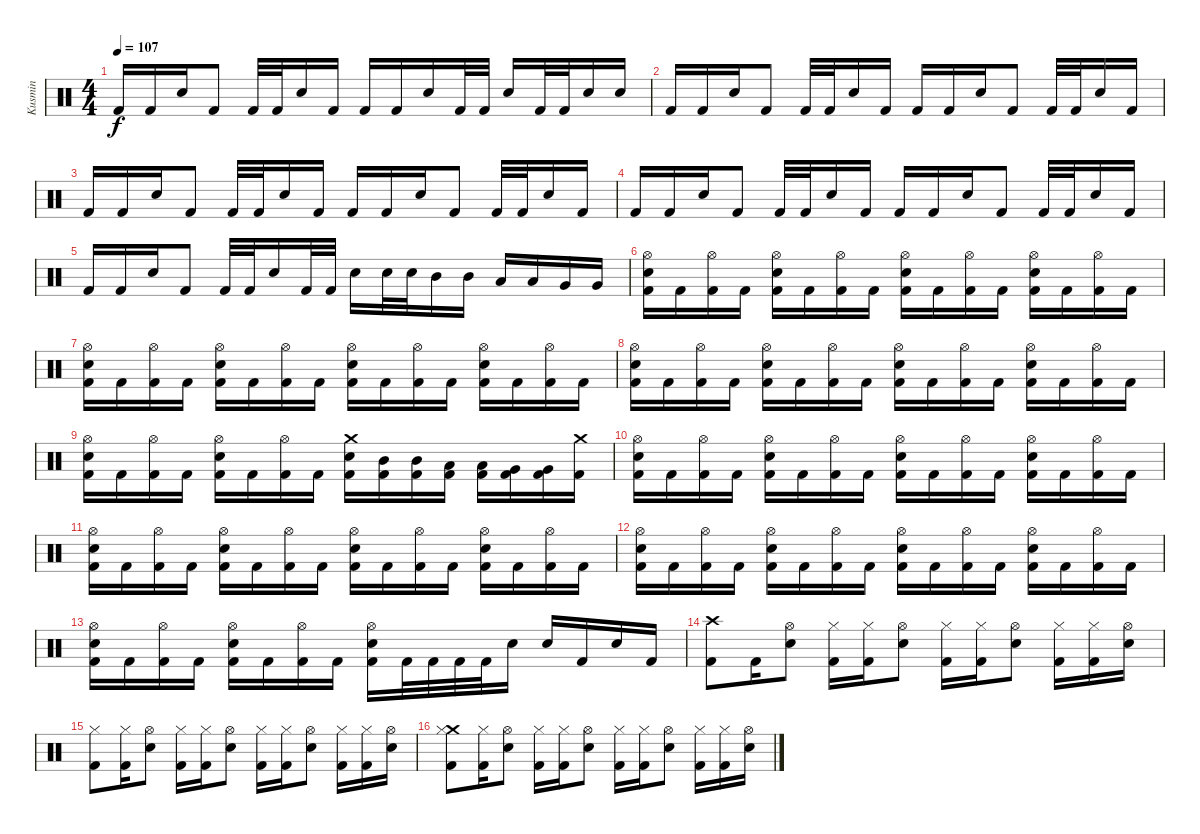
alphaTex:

\track ("Kusmin" "Kusmin") {instrument percussion}
\staff {score}
\articulation defaults
\ts (4 4)
\tempo 107
\clef neutral
\ks c "Kick (hit) 2".16{dy f} "Kick (hit) 2".16 "Snare (hit) 2".16 "Kick (hit) 2".8 "Kick (hit) 2".32 "Kick (hit) 2".32 "Snare (hit) 2".16 "Kick (hit) 2".16 "Kick (hit) 2".16 "Kick (hit) 2".16 "Snare (hit) 2".16 "Kick (hit) 2".32 "Kick (hit) 2".32 "Snare (hit) 2".16 "Kick (hit) 2".32 "Kick (hit) 2".32 "Snare (hit) 2".16 "Snare (hit) 2".16
|
"Kick (hit) 2".16 "Kick (hit) 2".16 "Snare (hit) 2".16 "Kick (hit) 2".8 "Kick (hit) 2".32 "Kick (hit) 2".32 "Snare (hit) 2".16 "Kick (hit) 2".16 "Kick (hit) 2".16 "Kick (hit) 2".16 "Snare (hit) 2".16 "Kick (hit) 2".8 "Kick (hit) 2".32 "Kick (hit) 2".32 "Snare (hit) 2".16 "Kick (hit) 2".16 |
"Kick (hit) 2".16 "Kick (hit) 2".16 "Snare (hit) 2".16 "Kick (hit) 2".8 "Kick (hit) 2".32 "Kick (hit) 2".32 "Snare (hit) 2".16 "Kick (hit) 2".16 "Kick (hit) 2".16 "Kick (hit) 2".16 "Snare (hit) 2".16 "Kick (hit) 2".8 "Kick (hit) 2".32 "Kick (hit) 2".32 "Snare (hit) 2".16 "Kick (hit) 2".16 |
"Kick (hit) 2".16 "Kick (hit) 2".16 "Snare (hit) 2".16 "Kick (hit) 2".8 "Kick (hit) 2".32 "Kick (hit) 2".32 "Snare (hit) 2".16 "Kick (hit) 2".16 "Kick (hit) 2".16 "Kick (hit) 2".16 "Snare (hit) 2".16 "Kick (hit) 2".8 "Kick (hit) 2".32 "Kick (hit) 2".32 "Snare (hit) 2".16 "Kick (hit) 2".16 |
"Kick (hit) 2".16 "Kick (hit) 2".16 "Snare (hit) 2".16 "Kick (hit) 2".8 "Kick (hit) 2".32 "Kick (hit) 2".32 "Snare (hit) 2".16 "Kick (hit) 2".32 "Kick (hit) 2".32 "Snare (hit) 2".16 "Snare (hit) 2".32 "Snare (hit) 2".32 "Mid Tom (hit)".16 "Mid Tom (hit)".16 "Low Tom (hit)".16 "Low Tom (hit)".16 "Very Low Tom (hit)".16 "Very Low Tom (hit)".16 |
("Hi-Hat (open)" "Snare (hit) 2" "Kick (hit) 2").16 "Kick (hit) 2".16 ("Hi-Hat (open)" "Kick (hit) 2").16 "Kick (hit) 2".16 ("Hi-Hat (open)" "Snare (hit) 2" "Kick (hit) 2").16 "Kick (hit) 2".16 ("Hi-Hat (open)" "Kick (hit) 2").16 "Kick (hit) 2".16 ("Hi-Hat (open)" "Snare (hit) 2" "Kick (hit) 2").16 "Kick (hit) 2".16 ("Hi-Hat (open)" "Kick (hit) 2").16 "Kick (hit) 2".16 ("Hi-Hat (open)" "Snare (hit) 2" "Kick (hit) 2").16 "Kick (hit) 2".16 ("Hi-Hat (open)" "Kick (hit) 2").16 "Kick (hit) 2".16 |
("Hi-Hat (open)" "Snare (hit) 2" "Kick (hit) 2").16 "Kick (hit) 2".16 ("Hi-Hat (open)" "Kick (hit) 2").16 "Kick (hit) 2".16 ("Hi-Hat (open)" "Snare (hit) 2" "Kick (hit) 2").16 "Kick (hit) 2".16 ("Hi-Hat (open)" "Kick (hit) 2").16 "Kick (hit) 2".16 ("Hi-Hat (open)" "Snare (hit) 2" "Kick (hit) 2").16 "Kick (hit) 2".16 ("Hi-Hat (open)" "Kick (hit) 2").16 "Kick (hit) 2".16 ("Hi-Hat (open)" "Snare (hit) 2" "Kick (hit) 2").16 "Kick (hit) 2".16 ("Hi-Hat (open)" "Kick (hit) 2").16 "Kick (hit) 2".16 |
("Hi-Hat (open)" "Snare (hit) 2" "Kick (hit) 2").16 "Kick (hit) 2".16 ("Hi-Hat (open)" "Kick (hit) 2").16 "Kick (hit) 2".16 ("Hi-Hat (open)" "Snare (hit) 2" "Kick (hit) 2").16 "Kick (hit) 2".16 ("Hi-Hat (open)" "Kick (hit) 2").16 "Kick (hit) 2".16 ("Hi-Hat (open)" "Snare (hit) 2" "Kick (hit) 2").16 "Kick (hit) 2".16 ("Hi-Hat (open)" "Kick (hit) 2").16 "Kick (hit) 2".16 ("Hi-Hat (open)" "Snare (hit) 2" "Kick (hit) 2").16 "Kick (hit) 2".16 ("Hi-Hat (open)" "Kick (hit) 2").16 "Kick (hit) 2".16 |
("Hi-Hat (open)" "Snare (hit) 2" "Kick (hit) 2").16 "Kick (hit) 2".16 ("Hi-Hat (open)" "Kick (hit) 2").16 "Kick (hit) 2".16 ("Hi-Hat (open)" "Snare (hit) 2" "Kick (hit) 2").16 "Kick (hit) 2".16 ("Hi-Hat (open)" "Kick (hit) 2").16 "Kick (hit) 2".16 ("Crash medium (hit)" "Snare (hit) 2" "Kick (hit) 2").16 ("Mid Tom (hit)" "Kick (hit) 2").16 ("Mid Tom (hit)" "Kick (hit) 2").16 ("Low Tom (hit)" "Kick (hit) 2").16 ("Low Tom (hit)" "Kick (hit) 2").16 ("Very Low Tom (hit)" "Kick (hit) 2").16 ("Very Low Tom (hit)" "Kick (hit) 2").16 ("Crash medium (hit)" "Kick (hit) 2").16 |
("Hi-Hat (open)" "Snare (hit) 2" "Kick (hit) 2").16 "Kick (hit) 2".16 ("Hi-Hat (open)" "Kick (hit) 2").16 "Kick (hit) 2".16 ("Hi-Hat (open)" "Snare (hit) 2" "Kick (hit) 2").16 "Kick (hit) 2".16 ("Hi-Hat (open)" "Kick (hit) 2").16 "Kick (hit) 2".16 ("Hi-Hat (open)" "Snare (hit) 2" "Kick (hit) 2").16 "Kick (hit) 2".16 ("Hi-Hat (open)" "Kick (hit) 2").16 "Kick (hit) 2".16 ("Hi-Hat (open)" "Snare (hit) 2" "Kick (hit) 2").16 "Kick (hit) 2".16 ("Hi-Hat (open)" "Kick (hit) 2").16 "Kick (hit) 2".16 |
("Hi-Hat (open)" "Snare (hit) 2" "Kick (hit) 2").16 "Kick (hit) 2".16 ("Hi-Hat (open)" "Kick (hit) 2").16 "Kick (hit) 2".16 ("Hi-Hat (open)" "Snare (hit) 2" "Kick (hit) 2").16 "Kick (hit) 2".16 ("Hi-Hat (open)" "Kick (hit) 2").16 "Kick (hit) 2".16 ("Hi-Hat (open)" "Snare (hit) 2" "Kick (hit) 2").16 "Kick (hit) 2".16 ("Hi-Hat (open)" "Kick (hit) 2").16 "Kick (hit) 2".16 ("Hi-Hat (open)" "Snare (hit) 2" "Kick (hit) 2").16 "Kick (hit) 2".16 ("Hi-Hat (open)" "Kick (hit) 2").16 "Kick (hit) 2".16 |
("Hi-Hat (open)" "Snare (hit) 2" "Kick (hit) 2").16 "Kick (hit) 2".16 ("Hi-Hat (open)" "Kick (hit) 2").16 "Kick (hit) 2".16 ("Hi-Hat (open)" "Snare (hit) 2" "Kick (hit) 2").16 "Kick (hit) 2".16 ("Hi-Hat (open)" "Kick (hit) 2").16 "Kick (hit) 2".16 ("Hi-Hat (open)" "Snare (hit) 2" "Kick (hit) 2").16 "Kick (hit) 2".16 ("Hi-Hat (open)" "Kick (hit) 2").16 "Kick (hit) 2".16 ("Hi-Hat (open)" "Snare (hit) 2" "Kick (hit) 2").16 "Kick (hit) 2".16 ("Hi-Hat (open)" "Kick (hit) 2").16 "Kick (hit) 2".16 |
("Hi-Hat (open)" "Snare (hit) 2" "Kick (hit) 2").16 "Kick (hit) 2".16 ("Hi-Hat (open)" "Kick (hit) 2").16 "Kick (hit) 2".16 ("Hi-Hat (open)" "Snare (hit) 2" "Kick (hit) 2").16 "Kick (hit) 2".16 ("Hi-Hat (open)" "Kick (hit) 2").16 "Kick (hit) 2".16 ("Hi-Hat (open)" "Snare (hit) 2" "Kick (hit) 2").16 "Kick (hit) 2".32 "Kick (hit) 2".32 "Kick (hit) 2".32 "Kick (hit) 2".32 "Snare (hit) 2".16 "Snare (hit) 2".16 "Kick (hit) 2".16 "Snare (hit) 2".16 "Kick (hit) 2".16 |
("Crash high (hit)" "Kick (hit) 2").8 "Kick (hit) 2".16 ("Hi-Hat (open)" "Snare (hit) 2").8 ("Hi-Hat (closed)" "Kick (hit) 2").16 ("Hi-Hat (closed)" "Kick (hit) 2").16 ("Hi-Hat (open)" "Snare (hit) 2").8 ("Hi-Hat (closed)" "Kick (hit) 2").16 ("Hi-Hat (closed)" "Kick (hit) 2").16 ("Hi-Hat (open)" "Snare (hit) 2").8 ("Hi-Hat (closed)" "Kick (hit) 2").16 ("Hi-Hat (closed)" "Kick (hit) 2").16 ("Hi-Hat (open)" "Snare (hit) 2").16 |
("Hi-Hat (closed)" "Kick (hit) 2").8 ("Hi-Hat (closed)" "Kick (hit) 2").16 ("Hi-Hat (open)" "Snare (hit) 2").8 ("Hi-Hat (closed)" "Kick (hit) 2").16 ("Hi-Hat (closed)" "Kick (hit) 2").16 ("Hi-Hat (open)" "Snare (hit) 2").8 ("Hi-Hat (closed)" "Kick (hit) 2").16 ("Hi-Hat (closed)" "Kick (hit) 2").16 ("Hi-Hat (open)" "Snare (hit) 2").8 ("Hi-Hat (closed)" "Kick (hit) 2").16 ("Hi-Hat (closed)" "Kick (hit) 2").16 ("Hi-Hat (open)" "Snare (hit) 2").16 |
("Crash medium (hit)" "Hi-Hat (closed)" "Kick (hit) 2").8 ("Hi-Hat (closed)" "Kick (hit) 2").16 ("Hi-Hat (open)" "Snare (hit) 2").8 ("Hi-Hat (closed)" "Kick (hit) 2").16 ("Hi-Hat (closed)" "Kick (hit) 2").16 ("Hi-Hat (open)" "Snare (hit) 2").8 ("Hi-Hat (closed)" "Kick (hit) 2").16 ("Hi-Hat (closed)" "Kick (hit) 2").16 ("Hi-Hat (open)" "Snare (hit) 2").8 ("Hi-Hat (closed)" "Kick (hit) 2").16 ("Hi-Hat (closed)" "Kick (hit) 2").16 ("Hi-Hat (open)" "Snare (hit) 2").16
